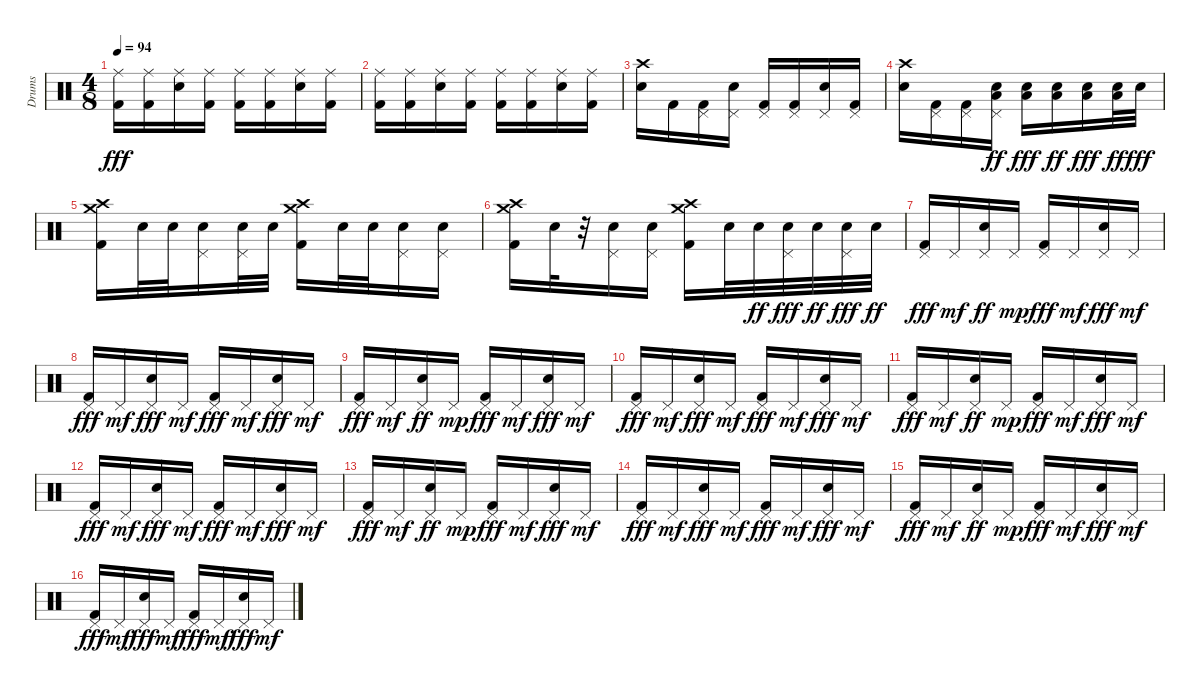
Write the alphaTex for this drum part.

\track ("Drums" "Drums") {instrument percussion}
\staff {score}
\articulation defaults
\ts (4 8)
\tempo 94
\clef neutral
\ks c
("Ride (middle)" "Kick (hit) 2").16{dy fff} ("Ride (middle)" "Kick (hit) 2").16 ("Electric Snare (hit)" "Ride (middle)").16 ("Kick (hit) 2" "Ride (middle)").16 ("Kick (hit) 2" "Ride (middle)").16 ("Ride (middle)" "Kick (hit) 2").16 ("Ride (middle)" "Electric Snare (hit)").16 ("Ride (middle)" "Kick (hit) 2").16 |
("Ride (middle)" "Kick (hit) 2").16 ("Ride (middle)" "Kick (hit) 2").16 ("Ride (middle)" "Electric Snare (hit)").16 ("Ride (middle)" "Kick (hit) 2").16 ("Ride (middle)" "Kick (hit) 2").16 ("Ride (middle)" "Kick (hit) 2").16 ("Electric Snare (hit)" "Ride (middle)").16 ("Ride (middle)" "Kick (hit) 2").16 |
("Crash high (hit)" "Electric Snare (hit)").16 "Kick (hit) 2".16 ("Pedal Hi-Hat (hit)" "Kick (hit) 2").16 ("Electric Snare (hit)" "Pedal Hi-Hat (hit)").16 ("Pedal Hi-Hat (hit)" "Kick (hit) 2").16 ("Pedal Hi-Hat (hit)" "Kick (hit) 2").16 ("Pedal Hi-Hat (hit)" "Electric Snare (hit)").16 ("Kick (hit) 2" "Pedal Hi-Hat (hit)").16 |
("Crash high (hit)" "Electric Snare (hit)").16 ("Pedal Hi-Hat (hit)" "Kick (hit) 2").16 ("Kick (hit) 2" "Pedal Hi-Hat (hit)").16 ("Electric Snare (hit)" "Low Floor Tom (hit)" "Pedal Hi-Hat (hit)").16{dy ff} ("Low Floor Tom (hit)" "Electric Snare (hit)").16{dy fff} ("Electric Snare (hit)" "Low Floor Tom (hit)").16{dy ff} ("Low Floor Tom (hit)" "Electric Snare (hit)").16{dy fff} ("Electric Snare (hit)" "Low Floor Tom (hit)").32{dy ff} "Electric Snare (hit)".32{dy fff} |
("Crash high (hit)" "Kick (hit) 2" "Crash medium (hit)").16 "Electric Snare (hit)".32 "Electric Snare (hit)".32 ("Electric Snare (hit)" "Pedal Hi-Hat (hit)").16 ("Electric Snare (hit)" "Pedal Hi-Hat (hit)").32 "Electric Snare (hit)".32 ("Kick (hit) 2" "Crash high (hit)" "Crash medium (hit)").16 "Electric Snare (hit)".32 "Electric Snare (hit)".32 ("Electric Snare (hit)" "Pedal Hi-Hat (hit)").16 ("Pedal Hi-Hat (hit)" "Electric Snare (hit)").16 |
("Crash high (hit)" "Crash medium (hit)" "Kick (hit) 2").16 "Electric Snare (hit)".32 r.32 ("Electric Snare (hit)" "Pedal Hi-Hat (hit)").16 ("Electric Snare (hit)" "Pedal Hi-Hat (hit)").16 ("Crash high (hit)" "Kick (hit) 2" "Crash medium (hit)").16 "Electric Snare (hit)".32 "Electric Snare (hit)".32{dy ff} ("Electric Snare (hit)" "Pedal Hi-Hat (hit)").32{dy fff} "Electric Snare (hit)".32{dy ff} ("Electric Snare (hit)" "Pedal Hi-Hat (hit)").32{dy fff} "Electric Snare (hit)".32{dy ff} |
("Pedal Hi-Hat (hit)" "Kick (hit) 2").16{dy fff} "Pedal Hi-Hat (hit)".16{dy mf} ("Electric Snare (hit)" "Pedal Hi-Hat (hit)").16{dy ff} "Pedal Hi-Hat (hit)".16{dy mp} ("Pedal Hi-Hat (hit)" "Kick (hit) 2").16{dy fff} "Pedal Hi-Hat (hit)".16{dy mf} ("Pedal Hi-Hat (hit)" "Electric Snare (hit)").16{dy fff} "Pedal Hi-Hat (hit)".16{dy mf} |
("Pedal Hi-Hat (hit)" "Kick (hit) 2").16{dy fff} "Pedal Hi-Hat (hit)".16{dy mf} ("Pedal Hi-Hat (hit)" "Electric Snare (hit)").16{dy fff} "Pedal Hi-Hat (hit)".16{dy mf} ("Pedal Hi-Hat (hit)" "Kick (hit) 2").16{dy fff} "Pedal Hi-Hat (hit)".16{dy mf} ("Pedal Hi-Hat (hit)" "Electric Snare (hit)").16{dy fff} "Pedal Hi-Hat (hit)".16{dy mf} |
("Pedal Hi-Hat (hit)" "Kick (hit) 2").16{dy fff} "Pedal Hi-Hat (hit)".16{dy mf} ("Electric Snare (hit)" "Pedal Hi-Hat (hit)").16{dy ff} "Pedal Hi-Hat (hit)".16{dy mp} ("Pedal Hi-Hat (hit)" "Kick (hit) 2").16{dy fff} "Pedal Hi-Hat (hit)".16{dy mf} ("Pedal Hi-Hat (hit)" "Electric Snare (hit)").16{dy fff} "Pedal Hi-Hat (hit)".16{dy mf} |
("Pedal Hi-Hat (hit)" "Kick (hit) 2").16{dy fff} "Pedal Hi-Hat (hit)".16{dy mf} ("Pedal Hi-Hat (hit)" "Electric Snare (hit)").16{dy fff} "Pedal Hi-Hat (hit)".16{dy mf} ("Pedal Hi-Hat (hit)" "Kick (hit) 2").16{dy fff} "Pedal Hi-Hat (hit)".16{dy mf} ("Pedal Hi-Hat (hit)" "Electric Snare (hit)").16{dy fff} "Pedal Hi-Hat (hit)".16{dy mf} |
("Pedal Hi-Hat (hit)" "Kick (hit) 2").16{dy fff} "Pedal Hi-Hat (hit)".16{dy mf} ("Electric Snare (hit)" "Pedal Hi-Hat (hit)").16{dy ff} "Pedal Hi-Hat (hit)".16{dy mp} ("Pedal Hi-Hat (hit)" "Kick (hit) 2").16{dy fff} "Pedal Hi-Hat (hit)".16{dy mf} ("Pedal Hi-Hat (hit)" "Electric Snare (hit)").16{dy fff} "Pedal Hi-Hat (hit)".16{dy mf} |
("Pedal Hi-Hat (hit)" "Kick (hit) 2").16{dy fff} "Pedal Hi-Hat (hit)".16{dy mf} ("Pedal Hi-Hat (hit)" "Electric Snare (hit)").16{dy fff} "Pedal Hi-Hat (hit)".16{dy mf} ("Pedal Hi-Hat (hit)" "Kick (hit) 2").16{dy fff} "Pedal Hi-Hat (hit)".16{dy mf} ("Pedal Hi-Hat (hit)" "Electric Snare (hit)").16{dy fff} "Pedal Hi-Hat (hit)".16{dy mf} |
("Pedal Hi-Hat (hit)" "Kick (hit) 2").16{dy fff} "Pedal Hi-Hat (hit)".16{dy mf} ("Electric Snare (hit)" "Pedal Hi-Hat (hit)").16{dy ff} "Pedal Hi-Hat (hit)".16{dy mp} ("Pedal Hi-Hat (hit)" "Kick (hit) 2").16{dy fff} "Pedal Hi-Hat (hit)".16{dy mf} ("Pedal Hi-Hat (hit)" "Electric Snare (hit)").16{dy fff} "Pedal Hi-Hat (hit)".16{dy mf} |
("Pedal Hi-Hat (hit)" "Kick (hit) 2").16{dy fff} "Pedal Hi-Hat (hit)".16{dy mf} ("Pedal Hi-Hat (hit)" "Electric Snare (hit)").16{dy fff} "Pedal Hi-Hat (hit)".16{dy mf} ("Pedal Hi-Hat (hit)" "Kick (hit) 2").16{dy fff} "Pedal Hi-Hat (hit)".16{dy mf} ("Pedal Hi-Hat (hit)" "Electric Snare (hit)").16{dy fff} "Pedal Hi-Hat (hit)".16{dy mf} |
("Pedal Hi-Hat (hit)" "Kick (hit) 2").16{dy fff} "Pedal Hi-Hat (hit)".16{dy mf} ("Electric Snare (hit)" "Pedal Hi-Hat (hit)").16{dy ff} "Pedal Hi-Hat (hit)".16{dy mp} ("Pedal Hi-Hat (hit)" "Kick (hit) 2").16{dy fff} "Pedal Hi-Hat (hit)".16{dy mf} ("Pedal Hi-Hat (hit)" "Electric Snare (hit)").16{dy fff} "Pedal Hi-Hat (hit)".16{dy mf} |
("Pedal Hi-Hat (hit)" "Kick (hit) 2").16{dy fff} "Pedal Hi-Hat (hit)".16{dy mf} ("Pedal Hi-Hat (hit)" "Electric Snare (hit)").16{dy fff} "Pedal Hi-Hat (hit)".16{dy mf} ("Pedal Hi-Hat (hit)" "Kick (hit) 2").16{dy fff} "Pedal Hi-Hat (hit)".16{dy mf} ("Pedal Hi-Hat (hit)" "Electric Snare (hit)").16{dy fff} "Pedal Hi-Hat (hit)".16{dy mf}
